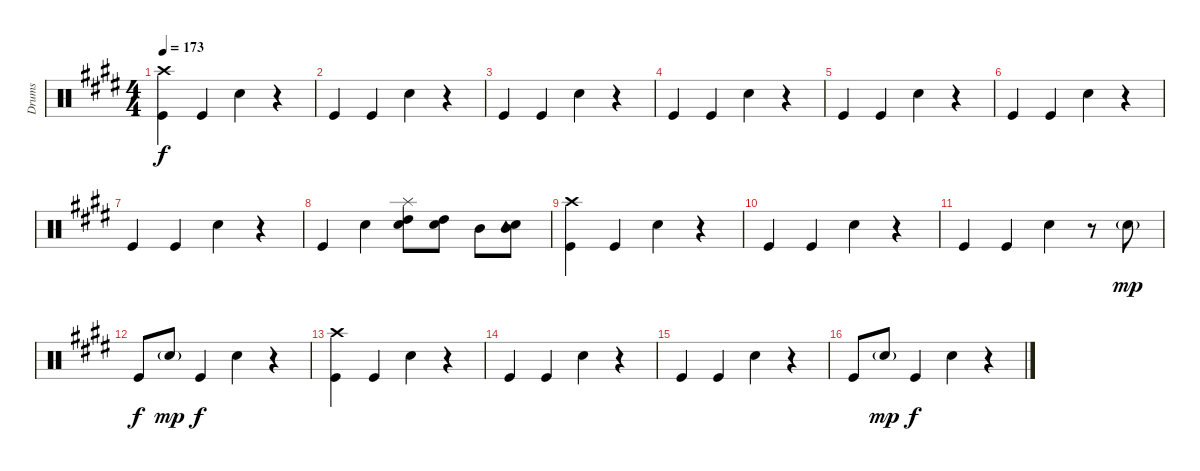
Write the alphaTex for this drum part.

\track ("Drums" "Drums") {instrument percussion}
\staff {score}
\articulation defaults
\ts (4 4)
\tempo 173
\clef neutral
\ks e
("Kick (hit)" "Crash high (hit)").4{dy f} "Kick (hit)".4 "Snare (hit) 2".4 r.4 |
"Kick (hit)".4 "Kick (hit)".4 "Snare (hit) 2".4 r.4 |
"Kick (hit)".4 "Kick (hit)".4 "Snare (hit) 2".4 r.4 |
"Kick (hit)".4 "Kick (hit)".4 "Snare (hit) 2".4 r.4 |
"Kick (hit)".4 "Kick (hit)".4 "Snare (hit) 2".4 r.4 |
"Kick (hit)".4 "Kick (hit)".4 "Snare (hit) 2".4 r.4 |
"Kick (hit)".4 "Kick (hit)".4 "Snare (hit) 2".4 r.4 |
"Kick (hit)".4 "Snare (hit) 2".4 ("Snare (hit) 2" "Splash (hit)" "High Tom (hit)").8 ("Snare (hit) 2" "High Tom (hit)").8 "Mid Tom (hit)".8 ("Snare (hit) 2" "Tambourine (hit)" "Mid Tom (hit)").8 |
("Crash high (hit)" "Kick (hit)").4 "Kick (hit)".4 "Snare (hit) 2".4 r.4 |
"Kick (hit)".4 "Kick (hit)".4 "Snare (hit) 2".4 r.4 |
"Kick (hit)".4 "Kick (hit)".4 "Snare (hit) 2".4 r.8 "Snare (hit) 2"{g}.8{dy mp} |
"Kick (hit)".8{dy f} "Snare (hit) 2"{g}.8{dy mp} "Kick (hit)".4{dy f} "Snare (hit) 2".4 r.4 |
("Crash high (hit)" "Kick (hit)").4 "Kick (hit)".4 "Snare (hit) 2".4 r.4 |
"Kick (hit)".4 "Kick (hit)".4 "Snare (hit) 2".4 r.4 |
"Kick (hit)".4 "Kick (hit)".4 "Snare (hit) 2".4 r.4 |
"Kick (hit)".8 "Snare (hit) 2"{g}.8{dy mp} "Kick (hit)".4{dy f} "Snare (hit) 2".4 r.4
